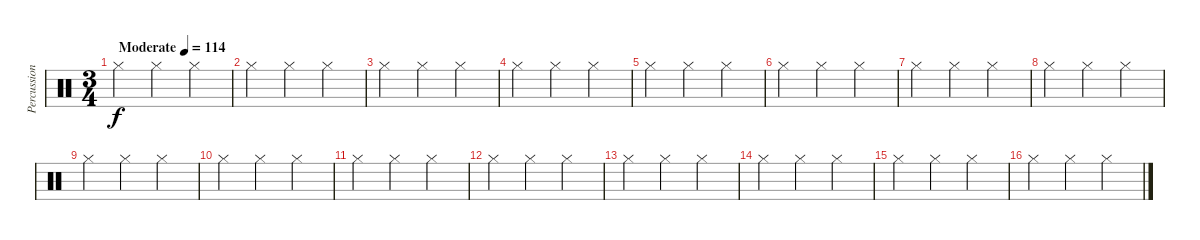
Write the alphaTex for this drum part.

\track ("Percussion" "Percussion") {instrument percussion}
\staff {score}
\articulation defaults
\ts (3 4)
\tempo (114 "Moderate")
\tempo 85
\tempo (114 "Moderate")
\clef neutral
\ks c "Hi-Hat (closed)".4{dy f} "Hi-Hat (closed)".4 "Hi-Hat (closed)".4
|
"Hi-Hat (closed)".4 "Hi-Hat (closed)".4 "Hi-Hat (closed)".4 |
"Hi-Hat (closed)".4 "Hi-Hat (closed)".4 "Hi-Hat (closed)".4 |
"Hi-Hat (closed)".4 "Hi-Hat (closed)".4 "Hi-Hat (closed)".4 |
"Hi-Hat (closed)".4 "Hi-Hat (closed)".4 "Hi-Hat (closed)".4 |
"Hi-Hat (closed)".4 "Hi-Hat (closed)".4 "Hi-Hat (closed)".4 |
"Hi-Hat (closed)".4 "Hi-Hat (closed)".4 "Hi-Hat (closed)".4 |
"Hi-Hat (closed)".4 "Hi-Hat (closed)".4 "Hi-Hat (closed)".4 |
"Hi-Hat (closed)".4 "Hi-Hat (closed)".4 "Hi-Hat (closed)".4 |
"Hi-Hat (closed)".4 "Hi-Hat (closed)".4 "Hi-Hat (closed)".4 |
"Hi-Hat (closed)".4 "Hi-Hat (closed)".4 "Hi-Hat (closed)".4 |
"Hi-Hat (closed)".4 "Hi-Hat (closed)".4 "Hi-Hat (closed)".4 |
"Hi-Hat (closed)".4 "Hi-Hat (closed)".4 "Hi-Hat (closed)".4 |
"Hi-Hat (closed)".4 "Hi-Hat (closed)".4 "Hi-Hat (closed)".4 |
"Hi-Hat (closed)".4 "Hi-Hat (closed)".4 "Hi-Hat (closed)".4 |
"Hi-Hat (closed)".4 "Hi-Hat (closed)".4 "Hi-Hat (closed)".4
